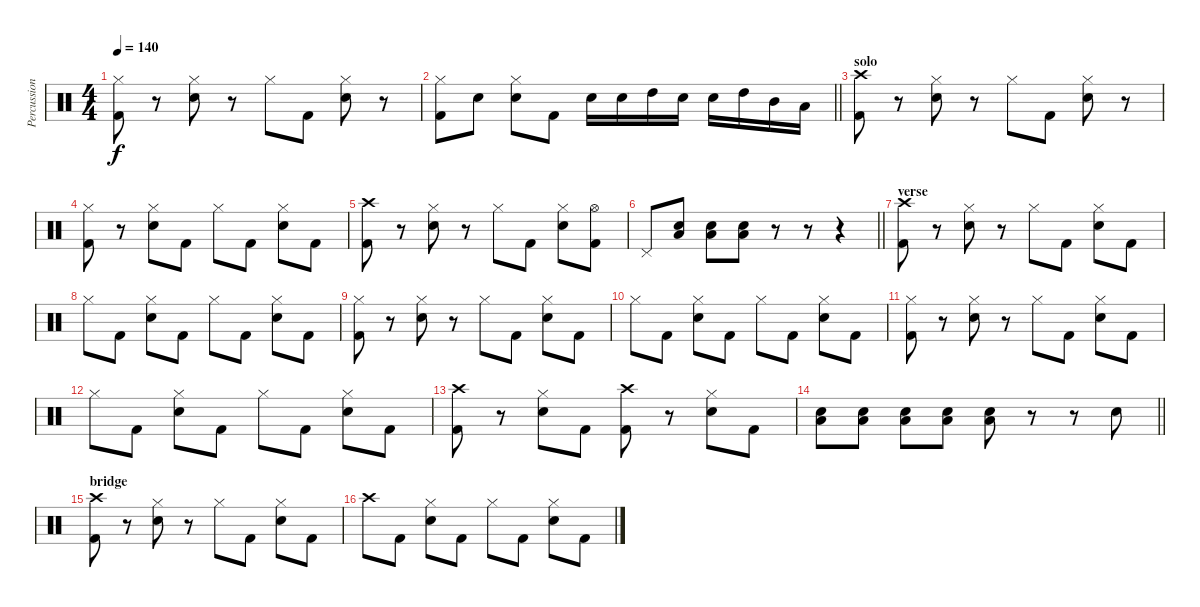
\track ("Percussion" "Percussion") {instrument percussion}
\staff {score}
\articulation defaults
\ts (4 4)
\tempo 140
\clef neutral
\ks c
("Hi-Hat (closed)" "Kick (hit) 2").8{dy f} r.8 ("Hi-Hat (closed)" "Snare (hit) 2").8 r.8 "Hi-Hat (closed)".8 "Kick (hit) 2".8 ("Hi-Hat (closed)" "Snare (hit) 2").8 r.8 |
\barLineRight lightlight
("Hi-Hat (closed)" "Kick (hit) 2").8 "Snare (hit) 2".8 ("Hi-Hat (closed)" "Snare (hit) 2").8 "Kick (hit) 2".8 "Snare (hit) 2".16 "Snare (hit) 2".16 "High Tom (hit)".16 "Snare (hit) 2".16 "Snare (hit) 2".16 "High Tom (hit)".16 "Mid Tom (hit)".16 "Low Tom (hit)".16 |
\section ("" "solo")
("Crash high (hit)" "Kick (hit) 2").8 r.8 ("Hi-Hat (closed)" "Snare (hit) 2").8 r.8 "Hi-Hat (closed)".8 "Kick (hit) 2".8 ("Hi-Hat (closed)" "Snare (hit) 2").8 r.8 |
("Hi-Hat (closed)" "Kick (hit) 2").8 r.8 ("Hi-Hat (closed)" "Snare (hit) 2").8 "Kick (hit) 2".8 "Hi-Hat (closed)".8 "Kick (hit) 2".8 ("Hi-Hat (closed)" "Snare (hit) 2").8 "Kick (hit) 2".8 |
("Crash high (hit)" "Kick (hit) 2").8 r.8 ("Hi-Hat (closed)" "Snare (hit) 2").8 r.8 "Hi-Hat (closed)".8 "Kick (hit) 2".8 ("Hi-Hat (closed)" "Snare (hit) 2").8 ("Hi-Hat (open)" "Kick (hit) 2").8 |
\barLineRight lightlight "Pedal Hi-Hat (hit)".8
("Low Floor Tom (hit)" "Snare (hit) 2").8 ("Low Floor Tom (hit)" "Snare (hit) 2").8 ("Low Floor Tom (hit)" "Snare (hit) 2").8 r.8 r.8 r.4 |
\section ("" "verse")
("Crash high (hit)" "Kick (hit) 2").8 r.8 ("Hi-Hat (closed)" "Snare (hit) 2").8 r.8 "Hi-Hat (closed)".8 "Kick (hit) 2".8 ("Hi-Hat (closed)" "Snare (hit) 2").8 "Kick (hit) 2".8 |
"Hi-Hat (closed)".8 "Kick (hit) 2".8 ("Hi-Hat (closed)" "Snare (hit) 2").8 "Kick (hit) 2".8 "Hi-Hat (closed)".8 "Kick (hit) 2".8 ("Hi-Hat (closed)" "Snare (hit) 2").8 "Kick (hit) 2".8 |
("Hi-Hat (closed)" "Kick (hit) 2").8 r.8 ("Hi-Hat (closed)" "Snare (hit) 2").8 r.8 "Hi-Hat (closed)".8 "Kick (hit) 2".8 ("Hi-Hat (closed)" "Snare (hit) 2").8 "Kick (hit) 2".8 |
"Hi-Hat (closed)".8 "Kick (hit) 2".8 ("Hi-Hat (closed)" "Snare (hit) 2").8 "Kick (hit) 2".8 "Hi-Hat (closed)".8 "Kick (hit) 2".8 ("Hi-Hat (closed)" "Snare (hit) 2").8 "Kick (hit) 2".8 |
("Hi-Hat (closed)" "Kick (hit) 2").8 r.8 ("Hi-Hat (closed)" "Snare (hit) 2").8 r.8 "Hi-Hat (closed)".8 "Kick (hit) 2".8 ("Hi-Hat (closed)" "Snare (hit) 2").8 "Kick (hit) 2".8 |
"Hi-Hat (closed)".8 "Kick (hit) 2".8 ("Hi-Hat (closed)" "Snare (hit) 2").8 "Kick (hit) 2".8 "Hi-Hat (closed)".8 "Kick (hit) 2".8 ("Hi-Hat (closed)" "Snare (hit) 2").8 "Kick (hit) 2".8 |
("Crash high (hit)" "Kick (hit) 2").8 r.8 ("Hi-Hat (closed)" "Snare (hit) 2").8 "Kick (hit) 2".8 ("Crash high (hit)" "Kick (hit) 2").8 r.8 ("Hi-Hat (closed)" "Snare (hit) 2").8 "Kick (hit) 2".8 |
\barLineRight lightlight
("Low Floor Tom (hit)" "Snare (hit) 2").8 ("Low Floor Tom (hit)" "Snare (hit) 2").8 ("Low Floor Tom (hit)" "Snare (hit) 2").8 ("Low Floor Tom (hit)" "Snare (hit) 2").8 ("Low Floor Tom (hit)" "Snare (hit) 2").8 r.8 r.8 "Snare (hit) 2".8 |
\section ("" "bridge")
("Crash high (hit)" "Kick (hit) 2").8 r.8 ("Hi-Hat (closed)" "Snare (hit) 2").8 r.8 "Hi-Hat (closed)".8 "Kick (hit) 2".8 ("Hi-Hat (closed)" "Snare (hit) 2").8 "Kick (hit) 2".8 |
"Crash high (hit)".8 "Kick (hit) 2".8 ("Hi-Hat (closed)" "Snare (hit) 2").8 "Kick (hit) 2".8 "Hi-Hat (closed)".8 "Kick (hit) 2".8 ("Hi-Hat (closed)" "Snare (hit) 2").8 "Kick (hit) 2".8
